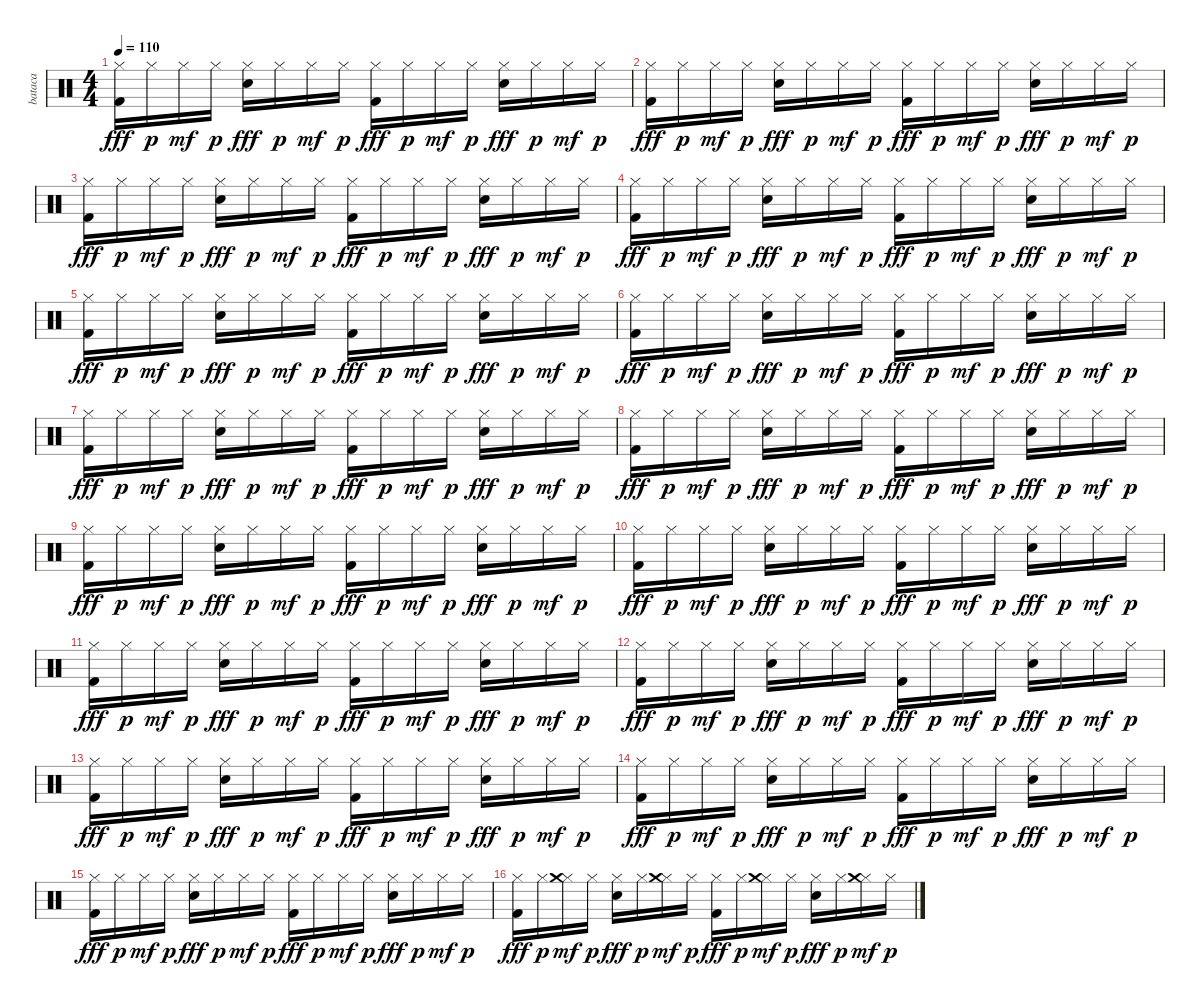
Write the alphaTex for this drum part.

\track ("bataca" "bataca") {instrument percussion}
\staff {score}
\articulation defaults
\ts (4 4)
\tempo 110
\clef neutral
\ks c
("Hi-Hat (closed)" "Kick (hit) 2").16{dy fff} "Hi-Hat (closed)".16{dy p} "Hi-Hat (closed)".16{dy mf} "Hi-Hat (closed)".16{dy p} ("Hi-Hat (closed)" "Electric Snare (hit)").16{dy fff} "Hi-Hat (closed)".16{dy p} "Hi-Hat (closed)".16{dy mf} "Hi-Hat (closed)".16{dy p} ("Hi-Hat (closed)" "Kick (hit) 2").16{dy fff} "Hi-Hat (closed)".16{dy p} "Hi-Hat (closed)".16{dy mf} "Hi-Hat (closed)".16{dy p} ("Hi-Hat (closed)" "Electric Snare (hit)").16{dy fff} "Hi-Hat (closed)".16{dy p} "Hi-Hat (closed)".16{dy mf} "Hi-Hat (closed)".16{dy p} |
("Hi-Hat (closed)" "Kick (hit) 2").16{dy fff} "Hi-Hat (closed)".16{dy p} "Hi-Hat (closed)".16{dy mf} "Hi-Hat (closed)".16{dy p} ("Hi-Hat (closed)" "Electric Snare (hit)").16{dy fff} "Hi-Hat (closed)".16{dy p} "Hi-Hat (closed)".16{dy mf} "Hi-Hat (closed)".16{dy p} ("Hi-Hat (closed)" "Kick (hit) 2").16{dy fff} "Hi-Hat (closed)".16{dy p} "Hi-Hat (closed)".16{dy mf} "Hi-Hat (closed)".16{dy p} ("Hi-Hat (closed)" "Electric Snare (hit)").16{dy fff} "Hi-Hat (closed)".16{dy p} "Hi-Hat (closed)".16{dy mf} "Hi-Hat (closed)".16{dy p} |
("Hi-Hat (closed)" "Kick (hit) 2").16{dy fff} "Hi-Hat (closed)".16{dy p} "Hi-Hat (closed)".16{dy mf} "Hi-Hat (closed)".16{dy p} ("Hi-Hat (closed)" "Electric Snare (hit)").16{dy fff} "Hi-Hat (closed)".16{dy p} "Hi-Hat (closed)".16{dy mf} "Hi-Hat (closed)".16{dy p} ("Hi-Hat (closed)" "Kick (hit) 2").16{dy fff} "Hi-Hat (closed)".16{dy p} "Hi-Hat (closed)".16{dy mf} "Hi-Hat (closed)".16{dy p} ("Hi-Hat (closed)" "Electric Snare (hit)").16{dy fff} "Hi-Hat (closed)".16{dy p} "Hi-Hat (closed)".16{dy mf} "Hi-Hat (closed)".16{dy p} |
("Hi-Hat (closed)" "Kick (hit) 2").16{dy fff} "Hi-Hat (closed)".16{dy p} "Hi-Hat (closed)".16{dy mf} "Hi-Hat (closed)".16{dy p} ("Hi-Hat (closed)" "Electric Snare (hit)").16{dy fff} "Hi-Hat (closed)".16{dy p} "Hi-Hat (closed)".16{dy mf} "Hi-Hat (closed)".16{dy p} ("Hi-Hat (closed)" "Kick (hit) 2").16{dy fff} "Hi-Hat (closed)".16{dy p} "Hi-Hat (closed)".16{dy mf} "Hi-Hat (closed)".16{dy p} ("Hi-Hat (closed)" "Electric Snare (hit)").16{dy fff} "Hi-Hat (closed)".16{dy p} "Hi-Hat (closed)".16{dy mf} "Hi-Hat (closed)".16{dy p} |
("Hi-Hat (closed)" "Kick (hit) 2").16{dy fff} "Hi-Hat (closed)".16{dy p} "Hi-Hat (closed)".16{dy mf} "Hi-Hat (closed)".16{dy p} ("Hi-Hat (closed)" "Electric Snare (hit)").16{dy fff} "Hi-Hat (closed)".16{dy p} "Hi-Hat (closed)".16{dy mf} "Hi-Hat (closed)".16{dy p} ("Hi-Hat (closed)" "Kick (hit) 2").16{dy fff} "Hi-Hat (closed)".16{dy p} "Hi-Hat (closed)".16{dy mf} "Hi-Hat (closed)".16{dy p} ("Hi-Hat (closed)" "Electric Snare (hit)").16{dy fff} "Hi-Hat (closed)".16{dy p} "Hi-Hat (closed)".16{dy mf} "Hi-Hat (closed)".16{dy p} |
("Hi-Hat (closed)" "Kick (hit) 2").16{dy fff} "Hi-Hat (closed)".16{dy p} "Hi-Hat (closed)".16{dy mf} "Hi-Hat (closed)".16{dy p} ("Hi-Hat (closed)" "Electric Snare (hit)").16{dy fff} "Hi-Hat (closed)".16{dy p} "Hi-Hat (closed)".16{dy mf} "Hi-Hat (closed)".16{dy p} ("Hi-Hat (closed)" "Kick (hit) 2").16{dy fff} "Hi-Hat (closed)".16{dy p} "Hi-Hat (closed)".16{dy mf} "Hi-Hat (closed)".16{dy p} ("Hi-Hat (closed)" "Electric Snare (hit)").16{dy fff} "Hi-Hat (closed)".16{dy p} "Hi-Hat (closed)".16{dy mf} "Hi-Hat (closed)".16{dy p} |
("Hi-Hat (closed)" "Kick (hit) 2").16{dy fff} "Hi-Hat (closed)".16{dy p} "Hi-Hat (closed)".16{dy mf} "Hi-Hat (closed)".16{dy p} ("Hi-Hat (closed)" "Electric Snare (hit)").16{dy fff} "Hi-Hat (closed)".16{dy p} "Hi-Hat (closed)".16{dy mf} "Hi-Hat (closed)".16{dy p} ("Hi-Hat (closed)" "Kick (hit) 2").16{dy fff} "Hi-Hat (closed)".16{dy p} "Hi-Hat (closed)".16{dy mf} "Hi-Hat (closed)".16{dy p} ("Hi-Hat (closed)" "Electric Snare (hit)").16{dy fff} "Hi-Hat (closed)".16{dy p} "Hi-Hat (closed)".16{dy mf} "Hi-Hat (closed)".16{dy p} |
("Hi-Hat (closed)" "Kick (hit) 2").16{dy fff} "Hi-Hat (closed)".16{dy p} "Hi-Hat (closed)".16{dy mf} "Hi-Hat (closed)".16{dy p} ("Hi-Hat (closed)" "Electric Snare (hit)").16{dy fff} "Hi-Hat (closed)".16{dy p} "Hi-Hat (closed)".16{dy mf} "Hi-Hat (closed)".16{dy p} ("Hi-Hat (closed)" "Kick (hit) 2").16{dy fff} "Hi-Hat (closed)".16{dy p} "Hi-Hat (closed)".16{dy mf} "Hi-Hat (closed)".16{dy p} ("Hi-Hat (closed)" "Electric Snare (hit)").16{dy fff} "Hi-Hat (closed)".16{dy p} "Hi-Hat (closed)".16{dy mf} "Hi-Hat (closed)".16{dy p} |
("Hi-Hat (closed)" "Kick (hit) 2").16{dy fff} "Hi-Hat (closed)".16{dy p} "Hi-Hat (closed)".16{dy mf} "Hi-Hat (closed)".16{dy p} ("Hi-Hat (closed)" "Electric Snare (hit)").16{dy fff} "Hi-Hat (closed)".16{dy p} "Hi-Hat (closed)".16{dy mf} "Hi-Hat (closed)".16{dy p} ("Hi-Hat (closed)" "Kick (hit) 2").16{dy fff} "Hi-Hat (closed)".16{dy p} "Hi-Hat (closed)".16{dy mf} "Hi-Hat (closed)".16{dy p} ("Hi-Hat (closed)" "Electric Snare (hit)").16{dy fff} "Hi-Hat (closed)".16{dy p} "Hi-Hat (closed)".16{dy mf} "Hi-Hat (closed)".16{dy p} |
("Hi-Hat (closed)" "Kick (hit) 2").16{dy fff} "Hi-Hat (closed)".16{dy p} "Hi-Hat (closed)".16{dy mf} "Hi-Hat (closed)".16{dy p} ("Hi-Hat (closed)" "Electric Snare (hit)").16{dy fff} "Hi-Hat (closed)".16{dy p} "Hi-Hat (closed)".16{dy mf} "Hi-Hat (closed)".16{dy p} ("Hi-Hat (closed)" "Kick (hit) 2").16{dy fff} "Hi-Hat (closed)".16{dy p} "Hi-Hat (closed)".16{dy mf} "Hi-Hat (closed)".16{dy p} ("Hi-Hat (closed)" "Electric Snare (hit)").16{dy fff} "Hi-Hat (closed)".16{dy p} "Hi-Hat (closed)".16{dy mf} "Hi-Hat (closed)".16{dy p} |
("Hi-Hat (closed)" "Kick (hit) 2").16{dy fff} "Hi-Hat (closed)".16{dy p} "Hi-Hat (closed)".16{dy mf} "Hi-Hat (closed)".16{dy p} ("Hi-Hat (closed)" "Electric Snare (hit)").16{dy fff} "Hi-Hat (closed)".16{dy p} "Hi-Hat (closed)".16{dy mf} "Hi-Hat (closed)".16{dy p} ("Hi-Hat (closed)" "Kick (hit) 2").16{dy fff} "Hi-Hat (closed)".16{dy p} "Hi-Hat (closed)".16{dy mf} "Hi-Hat (closed)".16{dy p} ("Hi-Hat (closed)" "Electric Snare (hit)").16{dy fff} "Hi-Hat (closed)".16{dy p} "Hi-Hat (closed)".16{dy mf} "Hi-Hat (closed)".16{dy p} |
("Hi-Hat (closed)" "Kick (hit) 2").16{dy fff} "Hi-Hat (closed)".16{dy p} "Hi-Hat (closed)".16{dy mf} "Hi-Hat (closed)".16{dy p} ("Hi-Hat (closed)" "Electric Snare (hit)").16{dy fff} "Hi-Hat (closed)".16{dy p} "Hi-Hat (closed)".16{dy mf} "Hi-Hat (closed)".16{dy p} ("Hi-Hat (closed)" "Kick (hit) 2").16{dy fff} "Hi-Hat (closed)".16{dy p} "Hi-Hat (closed)".16{dy mf} "Hi-Hat (closed)".16{dy p} ("Hi-Hat (closed)" "Electric Snare (hit)").16{dy fff} "Hi-Hat (closed)".16{dy p} "Hi-Hat (closed)".16{dy mf} "Hi-Hat (closed)".16{dy p} |
("Hi-Hat (closed)" "Kick (hit) 2").16{dy fff} "Hi-Hat (closed)".16{dy p} "Hi-Hat (closed)".16{dy mf} "Hi-Hat (closed)".16{dy p} ("Hi-Hat (closed)" "Electric Snare (hit)").16{dy fff} "Hi-Hat (closed)".16{dy p} "Hi-Hat (closed)".16{dy mf} "Hi-Hat (closed)".16{dy p} ("Hi-Hat (closed)" "Kick (hit) 2").16{dy fff} "Hi-Hat (closed)".16{dy p} "Hi-Hat (closed)".16{dy mf} "Hi-Hat (closed)".16{dy p} ("Hi-Hat (closed)" "Electric Snare (hit)").16{dy fff} "Hi-Hat (closed)".16{dy p} "Hi-Hat (closed)".16{dy mf} "Hi-Hat (closed)".16{dy p} |
("Hi-Hat (closed)" "Kick (hit) 2").16{dy fff} "Hi-Hat (closed)".16{dy p} "Hi-Hat (closed)".16{dy mf} "Hi-Hat (closed)".16{dy p} ("Hi-Hat (closed)" "Electric Snare (hit)").16{dy fff} "Hi-Hat (closed)".16{dy p} "Hi-Hat (closed)".16{dy mf} "Hi-Hat (closed)".16{dy p} ("Hi-Hat (closed)" "Kick (hit) 2").16{dy fff} "Hi-Hat (closed)".16{dy p} "Hi-Hat (closed)".16{dy mf} "Hi-Hat (closed)".16{dy p} ("Hi-Hat (closed)" "Electric Snare (hit)").16{dy fff} "Hi-Hat (closed)".16{dy p} "Hi-Hat (closed)".16{dy mf} "Hi-Hat (closed)".16{dy p} |
("Hi-Hat (closed)" "Kick (hit) 2").16{dy fff} "Hi-Hat (closed)".16{dy p} "Hi-Hat (closed)".16{dy mf} "Hi-Hat (closed)".16{dy p} ("Hi-Hat (closed)" "Electric Snare (hit)").16{dy fff} "Hi-Hat (closed)".16{dy p} "Hi-Hat (closed)".16{dy mf} "Hi-Hat (closed)".16{dy p} ("Hi-Hat (closed)" "Kick (hit) 2").16{dy fff} "Hi-Hat (closed)".16{dy p} "Hi-Hat (closed)".16{dy mf} "Hi-Hat (closed)".16{dy p} ("Hi-Hat (closed)" "Electric Snare (hit)").16{dy fff} "Hi-Hat (closed)".16{dy p} "Hi-Hat (closed)".16{dy mf} "Hi-Hat (closed)".16{dy p} |
("Hi-Hat (closed)" "Kick (hit) 2").16{dy fff} "Hi-Hat (closed)".16{dy p} ("Hi-Hat (closed)" "Crash medium (hit)").16{dy mf} "Hi-Hat (closed)".16{dy p} ("Hi-Hat (closed)" "Electric Snare (hit)").16{dy fff} "Hi-Hat (closed)".16{dy p} ("Hi-Hat (closed)" "Crash medium (hit)").16{dy mf} "Hi-Hat (closed)".16{dy p} ("Hi-Hat (closed)" "Kick (hit) 2").16{dy fff} "Hi-Hat (closed)".16{dy p} ("Hi-Hat (closed)" "Crash medium (hit)").16{dy mf} "Hi-Hat (closed)".16{dy p} ("Hi-Hat (closed)" "Electric Snare (hit)").16{dy fff} "Hi-Hat (closed)".16{dy p} ("Hi-Hat (closed)" "Crash medium (hit)").16{dy mf} "Hi-Hat (closed)".16{dy p}
